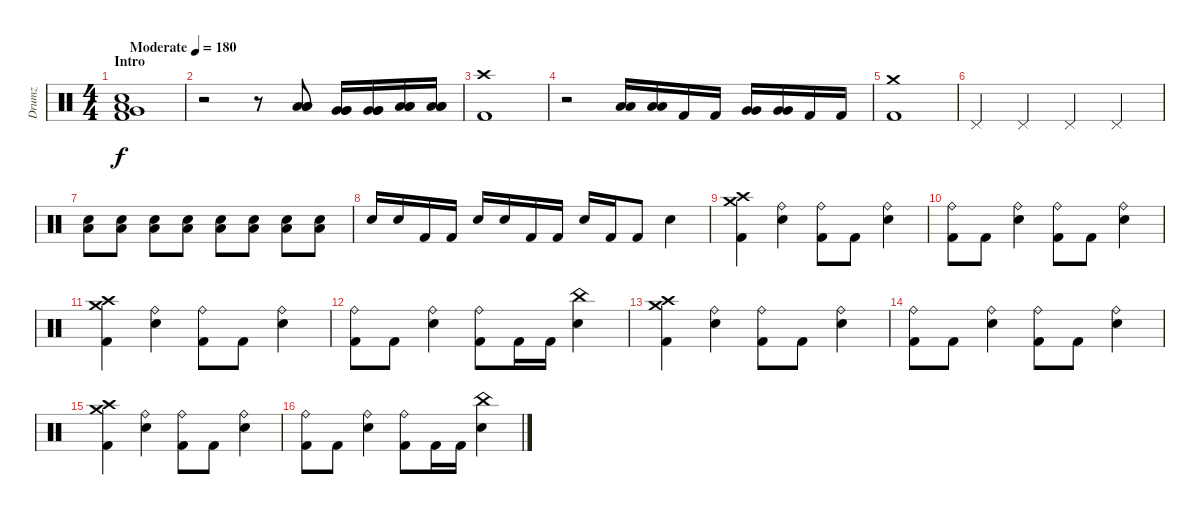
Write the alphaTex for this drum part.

\track ("Drumz" "Drumz") {instrument percussion}
\staff {score}
\articulation defaults
\ts (4 4)
\section ("" "Intro")
\tempo (180 "Moderate")
\clef neutral
\ks c
("Low Floor Tom (hit)" "Electric Snare (hit)" "Very Low Tom (hit)" "Kick (hit) 2").1{dy f} |
r.2 r.8 ("Low Tom (hit)" "Low Tom (hit)" "Low Tom (hit)").8 ("Very Low Tom (hit)" "Very Low Tom (hit)" "Very Low Tom (hit)").16 ("Very Low Tom (hit)" "Very Low Tom (hit)" "Very Low Tom (hit)").16 ("Low Floor Tom (hit)" "Low Floor Tom (hit)" "Low Floor Tom (hit)").16 ("Low Floor Tom (hit)" "Low Floor Tom (hit)" "Low Floor Tom (hit)").16 |
("Crash high (hit)" "Kick (hit) 2").1 |
r.2 ("Low Tom (hit)" "Low Tom (hit)").16 ("Low Tom (hit)" "Low Tom (hit)").16 "Kick (hit) 2".16 "Kick (hit) 2".16 ("Very Low Tom (hit)" "Very Low Tom (hit)").16 ("Very Low Tom (hit)" "Very Low Tom (hit)").16 "Kick (hit) 2".16 "Kick (hit) 2".16 |
("Crash medium (hit)" "Kick (hit) 2").1 |
"Pedal Hi-Hat (hit)".4 "Pedal Hi-Hat (hit)".4 "Pedal Hi-Hat (hit)".4 "Pedal Hi-Hat (hit)".4 |
("Low Tom (hit)" "Electric Snare (hit)").8{volume 0} ("Low Tom (hit)" "Electric Snare (hit)").8{volume 13} ("Low Tom (hit)" "Electric Snare (hit)").8 ("Low Tom (hit)" "Electric Snare (hit)").8 ("Low Tom (hit)" "Electric Snare (hit)").8 ("Low Tom (hit)" "Electric Snare (hit)").8 ("Low Tom (hit)" "Electric Snare (hit)").8 ("Low Tom (hit)" "Electric Snare (hit)").8 |
"Electric Snare (hit)".16 "Electric Snare (hit)".16 "Kick (hit) 2".16 "Kick (hit) 2".16 "Electric Snare (hit)".16 "Electric Snare (hit)".16 "Kick (hit) 2".16 "Kick (hit) 2".16 "Electric Snare (hit)".16 "Kick (hit) 2".16 "Kick (hit) 2".8 "Electric Snare (hit)".4 |
("Crash high (hit)" "Crash medium (hit)" "Kick (hit) 2").4 ("Ride (bell)" "Electric Snare (hit)").4 ("Ride (bell)" "Kick (hit) 2").8 "Kick (hit) 2".8 ("Ride (bell)" "Electric Snare (hit)").4 |
("Ride (bell)" "Kick (hit) 2").8 "Kick (hit) 2".8 ("Ride (bell)" "Electric Snare (hit)").4 ("Ride (bell)" "Kick (hit) 2").8 "Kick (hit) 2".8 ("Ride (bell)" "Electric Snare (hit)").4 |
("Crash high (hit)" "Crash medium (hit)" "Kick (hit) 2").4 ("Ride (bell)" "Electric Snare (hit)").4 ("Ride (bell)" "Kick (hit) 2").8 "Kick (hit) 2".8 ("Ride (bell)" "Electric Snare (hit)").4 |
("Ride (bell)" "Kick (hit) 2").8 "Kick (hit) 2".8 ("Ride (bell)" "Electric Snare (hit)").4 ("Ride (bell)" "Kick (hit) 2").8 "Kick (hit) 2".16 "Kick (hit) 2".16 ("China (hit)" "Electric Snare (hit)").4 |
("Crash high (hit)" "Crash medium (hit)" "Kick (hit) 2").4 ("Ride (bell)" "Electric Snare (hit)").4 ("Ride (bell)" "Kick (hit) 2").8 "Kick (hit) 2".8 ("Ride (bell)" "Electric Snare (hit)").4 |
("Ride (bell)" "Kick (hit) 2").8 "Kick (hit) 2".8 ("Ride (bell)" "Electric Snare (hit)").4 ("Ride (bell)" "Kick (hit) 2").8 "Kick (hit) 2".8 ("Ride (bell)" "Electric Snare (hit)").4 |
("Crash high (hit)" "Crash medium (hit)" "Kick (hit) 2").4 ("Ride (bell)" "Electric Snare (hit)").4 ("Ride (bell)" "Kick (hit) 2").8 "Kick (hit) 2".8 ("Ride (bell)" "Electric Snare (hit)").4 |
("Ride (bell)" "Kick (hit) 2").8 "Kick (hit) 2".8 ("Ride (bell)" "Electric Snare (hit)").4 ("Ride (bell)" "Kick (hit) 2").8 "Kick (hit) 2".16 "Kick (hit) 2".16 ("China (hit)" "Electric Snare (hit)").4
